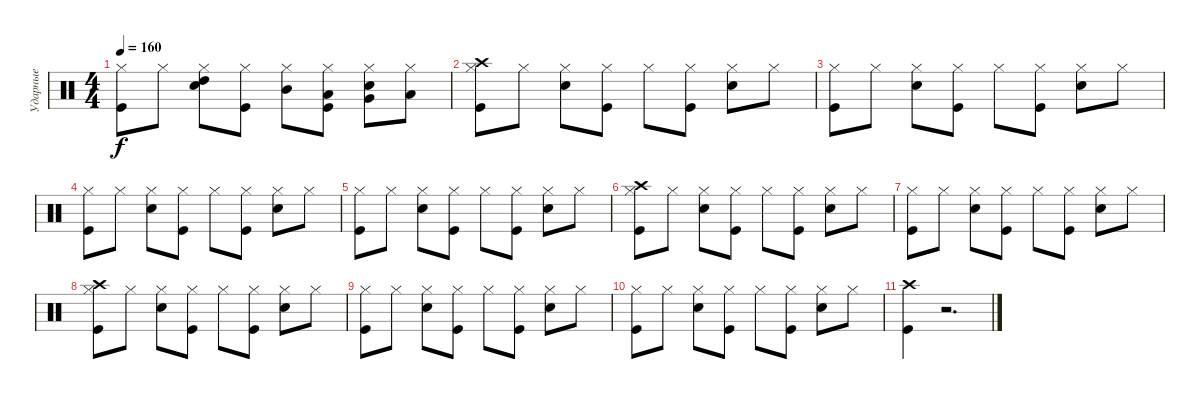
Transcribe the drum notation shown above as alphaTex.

\track ("Ударные" "Ударные") {instrument percussion}
\staff {score}
\articulation defaults
\ts (4 4)
\tempo 160
\clef neutral
\ks c
("Kick (hit)" "Hi-Hat (closed)").8{dy f} "Hi-Hat (closed)".8 ("Snare (hit) 2" "High Tom (hit)" "Hi-Hat (closed)").8 ("Kick (hit)" "Hi-Hat (closed)").8 ("Mid Tom (hit)" "Hi-Hat (closed)").8 ("Kick (hit)" "Low Tom (hit)" "Hi-Hat (closed)").8 ("Snare (hit) 2" "Very Low Tom (hit)" "Hi-Hat (closed)").8 ("Low Floor Tom (hit)" "Hi-Hat (closed)").8 |
("Kick (hit)" "Crash high (hit)" "Hi-Hat (closed)").8 "Hi-Hat (closed)".8 ("Snare (hit) 2" "Hi-Hat (closed)").8 ("Kick (hit)" "Hi-Hat (closed)").8 "Hi-Hat (closed)".8 ("Kick (hit)" "Hi-Hat (closed)").8 ("Snare (hit) 2" "Hi-Hat (closed)").8 "Hi-Hat (closed)".8 |
("Kick (hit)" "Hi-Hat (closed)").8 "Hi-Hat (closed)".8 ("Snare (hit) 2" "Hi-Hat (closed)").8 ("Kick (hit)" "Hi-Hat (closed)").8 "Hi-Hat (closed)".8 ("Kick (hit)" "Hi-Hat (closed)").8 ("Snare (hit) 2" "Hi-Hat (closed)").8 "Hi-Hat (closed)".8 |
("Kick (hit)" "Hi-Hat (closed)").8 "Hi-Hat (closed)".8 ("Snare (hit) 2" "Hi-Hat (closed)").8 ("Kick (hit)" "Hi-Hat (closed)").8 "Hi-Hat (closed)".8 ("Kick (hit)" "Hi-Hat (closed)").8 ("Snare (hit) 2" "Hi-Hat (closed)").8 "Hi-Hat (closed)".8 |
("Kick (hit)" "Hi-Hat (closed)").8 "Hi-Hat (closed)".8 ("Snare (hit) 2" "Hi-Hat (closed)").8 ("Kick (hit)" "Hi-Hat (closed)").8 "Hi-Hat (closed)".8 ("Kick (hit)" "Hi-Hat (closed)").8 ("Snare (hit) 2" "Hi-Hat (closed)").8 "Hi-Hat (closed)".8 |
("Kick (hit)" "Crash high (hit)" "Hi-Hat (closed)").8 "Hi-Hat (closed)".8 ("Snare (hit) 2" "Hi-Hat (closed)").8 ("Kick (hit)" "Hi-Hat (closed)").8 "Hi-Hat (closed)".8 ("Kick (hit)" "Hi-Hat (closed)").8 ("Snare (hit) 2" "Hi-Hat (closed)").8 "Hi-Hat (closed)".8 |
("Kick (hit)" "Hi-Hat (closed)").8 "Hi-Hat (closed)".8 ("Snare (hit) 2" "Hi-Hat (closed)").8 ("Kick (hit)" "Hi-Hat (closed)").8 "Hi-Hat (closed)".8 ("Kick (hit)" "Hi-Hat (closed)").8 ("Snare (hit) 2" "Hi-Hat (closed)").8 "Hi-Hat (closed)".8 |
("Kick (hit)" "Crash high (hit)" "Hi-Hat (closed)").8 "Hi-Hat (closed)".8 ("Snare (hit) 2" "Hi-Hat (closed)").8 ("Kick (hit)" "Hi-Hat (closed)").8 "Hi-Hat (closed)".8 ("Kick (hit)" "Hi-Hat (closed)").8 ("Snare (hit) 2" "Hi-Hat (closed)").8 "Hi-Hat (closed)".8 |
("Kick (hit)" "Hi-Hat (closed)").8 "Hi-Hat (closed)".8 ("Snare (hit) 2" "Hi-Hat (closed)").8 ("Kick (hit)" "Hi-Hat (closed)").8 "Hi-Hat (closed)".8 ("Kick (hit)" "Hi-Hat (closed)").8 ("Snare (hit) 2" "Hi-Hat (closed)").8 "Hi-Hat (closed)".8 |
("Kick (hit)" "Hi-Hat (closed)").8 "Hi-Hat (closed)".8 ("Snare (hit) 2" "Hi-Hat (closed)").8 ("Kick (hit)" "Hi-Hat (closed)").8 "Hi-Hat (closed)".8 ("Kick (hit)" "Hi-Hat (closed)").8 ("Snare (hit) 2" "Hi-Hat (closed)").8 "Hi-Hat (closed)".8 |
("Kick (hit)" "Crash high (hit)").4 r.2{d}
